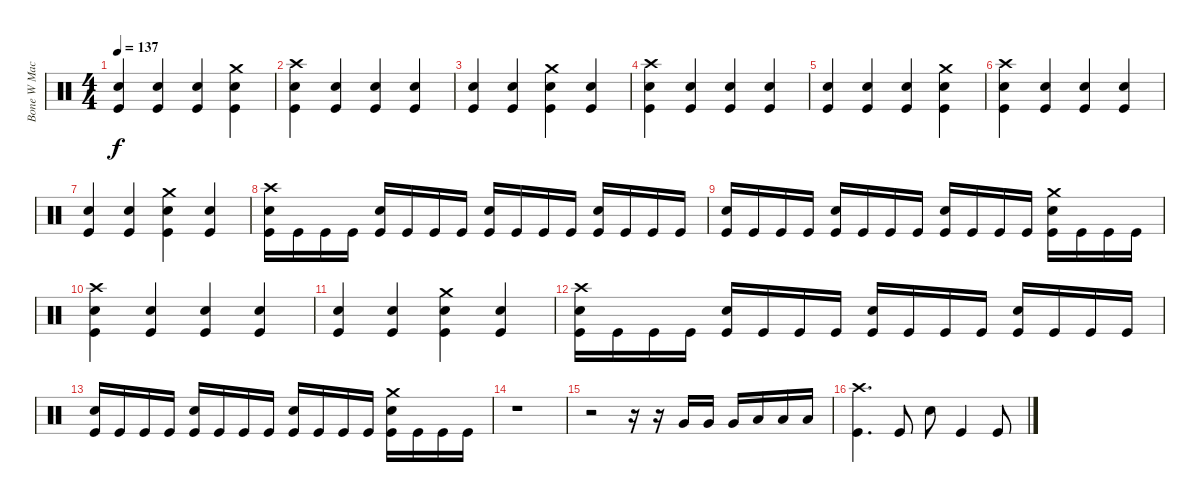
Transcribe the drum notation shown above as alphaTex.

\track ("Bone W Machine Drums" "Bone W Mac") {instrument percussion}
\staff {score}
\articulation defaults
\ts (4 4)
\tempo 137
\clef neutral
\ks c
("Snare (hit) 2" "Kick (hit)").4{dy f} ("Snare (hit) 2" "Kick (hit)").4 ("Snare (hit) 2" "Kick (hit)").4 ("Crash medium (hit)" "Snare (hit) 2" "Kick (hit)").4 |
("Crash high (hit)" "Snare (hit) 2" "Kick (hit)").4 ("Snare (hit) 2" "Kick (hit)").4 ("Snare (hit) 2" "Kick (hit)").4 ("Snare (hit) 2" "Kick (hit)").4 |
("Snare (hit) 2" "Kick (hit)").4 ("Snare (hit) 2" "Kick (hit)").4 ("Crash medium (hit)" "Snare (hit) 2" "Kick (hit)").4 ("Snare (hit) 2" "Kick (hit)").4 |
("Crash high (hit)" "Snare (hit) 2" "Kick (hit)").4 ("Snare (hit) 2" "Kick (hit)").4 ("Snare (hit) 2" "Kick (hit)").4 ("Snare (hit) 2" "Kick (hit)").4 |
("Snare (hit) 2" "Kick (hit)").4 ("Snare (hit) 2" "Kick (hit)").4 ("Snare (hit) 2" "Kick (hit)").4 ("Crash medium (hit)" "Snare (hit) 2" "Kick (hit)").4 |
("Crash high (hit)" "Snare (hit) 2" "Kick (hit)").4 ("Snare (hit) 2" "Kick (hit)").4 ("Snare (hit) 2" "Kick (hit)").4 ("Snare (hit) 2" "Kick (hit)").4 |
("Snare (hit) 2" "Kick (hit)").4 ("Snare (hit) 2" "Kick (hit)").4 ("Crash medium (hit)" "Snare (hit) 2" "Kick (hit)").4 ("Snare (hit) 2" "Kick (hit)").4 |
("Crash high (hit)" "Snare (hit) 2" "Kick (hit)").16 "Kick (hit)".16 "Kick (hit)".16 "Kick (hit)".16 ("Snare (hit) 2" "Kick (hit)").16 "Kick (hit)".16 "Kick (hit)".16 "Kick (hit)".16 ("Snare (hit) 2" "Kick (hit)").16 "Kick (hit)".16 "Kick (hit)".16 "Kick (hit)".16 ("Snare (hit) 2" "Kick (hit)").16 "Kick (hit)".16 "Kick (hit)".16 "Kick (hit)".16 |
("Snare (hit) 2" "Kick (hit)").16 "Kick (hit)".16 "Kick (hit)".16 "Kick (hit)".16 ("Snare (hit) 2" "Kick (hit)").16 "Kick (hit)".16 "Kick (hit)".16 "Kick (hit)".16 ("Snare (hit) 2" "Kick (hit)").16 "Kick (hit)".16 "Kick (hit)".16 "Kick (hit)".16 ("Crash medium (hit)" "Snare (hit) 2" "Kick (hit)").16 "Kick (hit)".16 "Kick (hit)".16 "Kick (hit)".16 |
("Crash high (hit)" "Snare (hit) 2" "Kick (hit)").4 ("Snare (hit) 2" "Kick (hit)").4 ("Snare (hit) 2" "Kick (hit)").4 ("Snare (hit) 2" "Kick (hit)").4 |
("Snare (hit) 2" "Kick (hit)").4 ("Snare (hit) 2" "Kick (hit)").4 ("Crash medium (hit)" "Snare (hit) 2" "Kick (hit)").4 ("Snare (hit) 2" "Kick (hit)").4 |
("Crash high (hit)" "Snare (hit) 2" "Kick (hit)").16 "Kick (hit)".16 "Kick (hit)".16 "Kick (hit)".16 ("Snare (hit) 2" "Kick (hit)").16 "Kick (hit)".16 "Kick (hit)".16 "Kick (hit)".16 ("Snare (hit) 2" "Kick (hit)").16 "Kick (hit)".16 "Kick (hit)".16 "Kick (hit)".16 ("Snare (hit) 2" "Kick (hit)").16 "Kick (hit)".16 "Kick (hit)".16 "Kick (hit)".16 |
("Snare (hit) 2" "Kick (hit)").16 "Kick (hit)".16 "Kick (hit)".16 "Kick (hit)".16 ("Snare (hit) 2" "Kick (hit)").16 "Kick (hit)".16 "Kick (hit)".16 "Kick (hit)".16 ("Snare (hit) 2" "Kick (hit)").16 "Kick (hit)".16 "Kick (hit)".16 "Kick (hit)".16 ("Crash medium (hit)" "Snare (hit) 2" "Kick (hit)").16 "Kick (hit)".16 "Kick (hit)".16 "Kick (hit)".16 |
r.1 |
r.2 r.16 r.16 "Very Low Tom (hit)".16 "Very Low Tom (hit)".16 "Very Low Tom (hit)".16 "Low Floor Tom (hit)".16 "Low Floor Tom (hit)".16 "Low Floor Tom (hit)".16 |
("Crash high (hit)" "Kick (hit)").4{d} "Kick (hit)".8 "Snare (hit) 2".8 "Kick (hit)".4 "Kick (hit)".8
